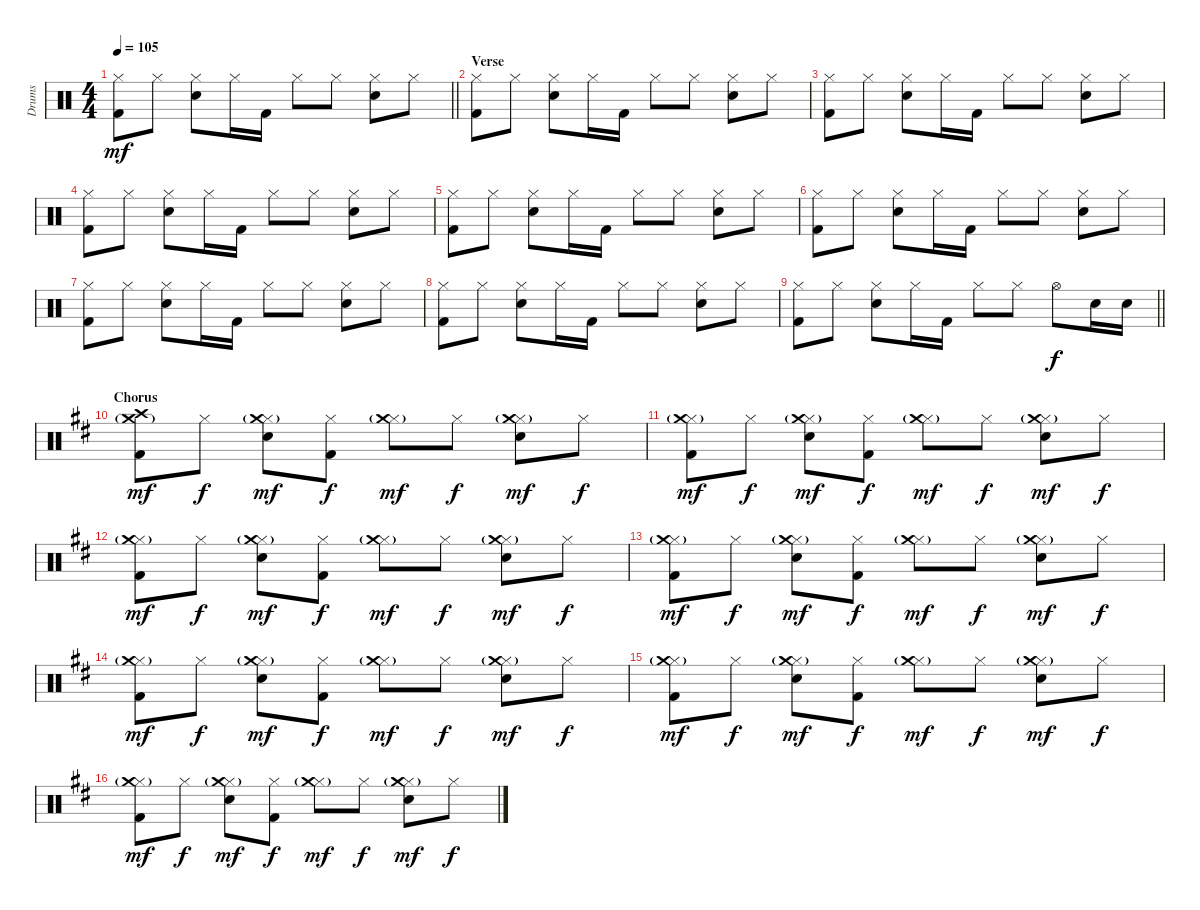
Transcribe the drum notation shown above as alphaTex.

\track ("Drums" "Drums") {instrument percussion}
\staff {score}
\articulation defaults
\ts (4 4)
\tempo 105
\clef neutral
\barLineRight lightlight
\ks aminor
("Hi-Hat (closed)" "Kick (hit) 2").8{dy mf} "Hi-Hat (closed)".8 ("Hi-Hat (closed)" "Electric Snare (hit)").8 "Hi-Hat (closed)".16 "Kick (hit) 2".16 "Hi-Hat (closed)".8 "Hi-Hat (closed)".8 ("Hi-Hat (closed)" "Electric Snare (hit)").8 "Hi-Hat (closed)".8 |
\section ("" "Verse")
("Hi-Hat (closed)" "Kick (hit) 2").8 "Hi-Hat (closed)".8 ("Hi-Hat (closed)" "Electric Snare (hit)").8 "Hi-Hat (closed)".16 "Kick (hit) 2".16 "Hi-Hat (closed)".8 "Hi-Hat (closed)".8 ("Hi-Hat (closed)" "Electric Snare (hit)").8 "Hi-Hat (closed)".8 |
("Hi-Hat (closed)" "Kick (hit) 2").8 "Hi-Hat (closed)".8 ("Hi-Hat (closed)" "Electric Snare (hit)").8 "Hi-Hat (closed)".16 "Kick (hit) 2".16 "Hi-Hat (closed)".8 "Hi-Hat (closed)".8 ("Hi-Hat (closed)" "Electric Snare (hit)").8 "Hi-Hat (closed)".8 |
("Hi-Hat (closed)" "Kick (hit) 2").8 "Hi-Hat (closed)".8 ("Hi-Hat (closed)" "Electric Snare (hit)").8 "Hi-Hat (closed)".16 "Kick (hit) 2".16 "Hi-Hat (closed)".8 "Hi-Hat (closed)".8 ("Hi-Hat (closed)" "Electric Snare (hit)").8 "Hi-Hat (closed)".8 |
("Hi-Hat (closed)" "Kick (hit) 2").8 "Hi-Hat (closed)".8 ("Hi-Hat (closed)" "Electric Snare (hit)").8 "Hi-Hat (closed)".16 "Kick (hit) 2".16 "Hi-Hat (closed)".8 "Hi-Hat (closed)".8 ("Hi-Hat (closed)" "Electric Snare (hit)").8 "Hi-Hat (closed)".8 |
("Hi-Hat (closed)" "Kick (hit) 2").8 "Hi-Hat (closed)".8 ("Hi-Hat (closed)" "Electric Snare (hit)").8 "Hi-Hat (closed)".16 "Kick (hit) 2".16 "Hi-Hat (closed)".8 "Hi-Hat (closed)".8 ("Hi-Hat (closed)" "Electric Snare (hit)").8 "Hi-Hat (closed)".8 |
("Hi-Hat (closed)" "Kick (hit) 2").8 "Hi-Hat (closed)".8 ("Hi-Hat (closed)" "Electric Snare (hit)").8 "Hi-Hat (closed)".16 "Kick (hit) 2".16 "Hi-Hat (closed)".8 "Hi-Hat (closed)".8 ("Hi-Hat (closed)" "Electric Snare (hit)").8 "Hi-Hat (closed)".8 |
("Hi-Hat (closed)" "Kick (hit) 2").8 "Hi-Hat (closed)".8 ("Hi-Hat (closed)" "Electric Snare (hit)").8 "Hi-Hat (closed)".16 "Kick (hit) 2".16 "Hi-Hat (closed)".8 "Hi-Hat (closed)".8 ("Hi-Hat (closed)" "Electric Snare (hit)").8 "Hi-Hat (closed)".8 |
\barLineRight lightlight
("Hi-Hat (closed)" "Kick (hit) 2").8 "Hi-Hat (closed)".8 ("Hi-Hat (closed)" "Electric Snare (hit)").8 "Hi-Hat (closed)".16 "Kick (hit) 2".16 "Hi-Hat (closed)".8 "Hi-Hat (closed)".8 "Hi-Hat (open)".8{dy f} "Electric Snare (hit)".16 "Electric Snare (hit)".16 |
\section ("" "Chorus")
\ks bminor
("Crash high (hit)" "Crash medium (hit)"{g} "Kick (hit) 2").8{dy mf} "Hi-Hat (closed)".8{dy f} ("Hi-Hat (closed)" "Crash medium (hit)"{g} "Electric Snare (hit)").8{dy mf} ("Hi-Hat (closed)" "Kick (hit) 2").8{dy f} ("Hi-Hat (closed)" "Crash medium (hit)"{g}).8{dy mf} "Hi-Hat (closed)".8{dy f} ("Hi-Hat (closed)" "Crash medium (hit)"{g} "Electric Snare (hit)").8{dy mf} "Hi-Hat (closed)".8{dy f} |
("Hi-Hat (closed)" "Crash medium (hit)"{g} "Kick (hit) 2").8{dy mf} "Hi-Hat (closed)".8{dy f} ("Hi-Hat (closed)" "Crash medium (hit)"{g} "Electric Snare (hit)").8{dy mf} ("Hi-Hat (closed)" "Kick (hit) 2").8{dy f} ("Hi-Hat (closed)" "Crash medium (hit)"{g}).8{dy mf} "Hi-Hat (closed)".8{dy f} ("Hi-Hat (closed)" "Crash medium (hit)"{g} "Electric Snare (hit)").8{dy mf} "Hi-Hat (closed)".8{dy f} |
("Hi-Hat (closed)" "Crash medium (hit)"{g} "Kick (hit) 2").8{dy mf} "Hi-Hat (closed)".8{dy f} ("Hi-Hat (closed)" "Crash medium (hit)"{g} "Electric Snare (hit)").8{dy mf} ("Hi-Hat (closed)" "Kick (hit) 2").8{dy f} ("Hi-Hat (closed)" "Crash medium (hit)"{g}).8{dy mf} "Hi-Hat (closed)".8{dy f} ("Hi-Hat (closed)" "Crash medium (hit)"{g} "Electric Snare (hit)").8{dy mf} "Hi-Hat (closed)".8{dy f} |
("Hi-Hat (closed)" "Crash medium (hit)"{g} "Kick (hit) 2").8{dy mf} "Hi-Hat (closed)".8{dy f} ("Hi-Hat (closed)" "Crash medium (hit)"{g} "Electric Snare (hit)").8{dy mf} ("Hi-Hat (closed)" "Kick (hit) 2").8{dy f} ("Hi-Hat (closed)" "Crash medium (hit)"{g}).8{dy mf} "Hi-Hat (closed)".8{dy f} ("Hi-Hat (closed)" "Crash medium (hit)"{g} "Electric Snare (hit)").8{dy mf} "Hi-Hat (closed)".8{dy f} |
("Hi-Hat (closed)" "Crash medium (hit)"{g} "Kick (hit) 2").8{dy mf} "Hi-Hat (closed)".8{dy f} ("Hi-Hat (closed)" "Crash medium (hit)"{g} "Electric Snare (hit)").8{dy mf} ("Hi-Hat (closed)" "Kick (hit) 2").8{dy f} ("Hi-Hat (closed)" "Crash medium (hit)"{g}).8{dy mf} "Hi-Hat (closed)".8{dy f} ("Hi-Hat (closed)" "Crash medium (hit)"{g} "Electric Snare (hit)").8{dy mf} "Hi-Hat (closed)".8{dy f} |
("Hi-Hat (closed)" "Crash medium (hit)"{g} "Kick (hit) 2").8{dy mf} "Hi-Hat (closed)".8{dy f} ("Hi-Hat (closed)" "Crash medium (hit)"{g} "Electric Snare (hit)").8{dy mf} ("Hi-Hat (closed)" "Kick (hit) 2").8{dy f} ("Hi-Hat (closed)" "Crash medium (hit)"{g}).8{dy mf} "Hi-Hat (closed)".8{dy f} ("Hi-Hat (closed)" "Crash medium (hit)"{g} "Electric Snare (hit)").8{dy mf} "Hi-Hat (closed)".8{dy f} |
("Hi-Hat (closed)" "Crash medium (hit)"{g} "Kick (hit) 2").8{dy mf} "Hi-Hat (closed)".8{dy f} ("Hi-Hat (closed)" "Crash medium (hit)"{g} "Electric Snare (hit)").8{dy mf} ("Hi-Hat (closed)" "Kick (hit) 2").8{dy f} ("Hi-Hat (closed)" "Crash medium (hit)"{g}).8{dy mf} "Hi-Hat (closed)".8{dy f} ("Hi-Hat (closed)" "Crash medium (hit)"{g} "Electric Snare (hit)").8{dy mf} "Hi-Hat (closed)".8{dy f}
